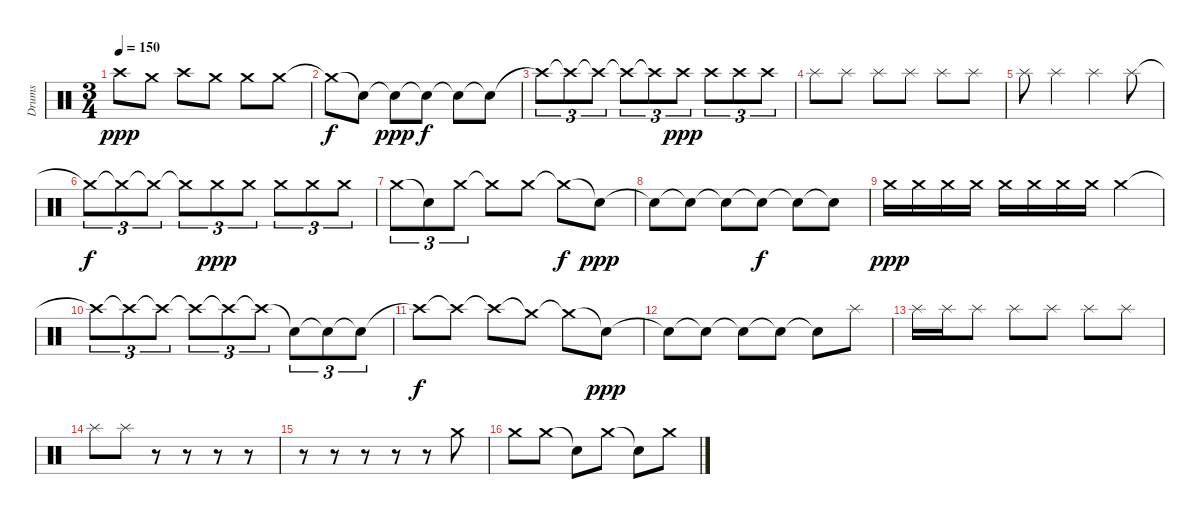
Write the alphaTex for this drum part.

\track ("Drums" "Drums") {instrument percussion}
\staff {score}
\articulation defaults
\ts (3 4)
\tempo 150
\clef neutral
\ks c "Crash high (hit)".8{dy ppp} "Crash medium (hit)".8 "Crash high (hit)".8 "Crash medium (hit)".8 "Crash medium (hit)".8 "Crash medium (hit)".8
|
"Crash medium (hit)"{t}.8{dy f} "Snare (hit)"{t}.8 "Snare (hit)"{t}.8{dy ppp} "Snare (hit)"{t}.8{dy f} "Snare (hit)"{t}.8 "Snare (hit)"{t}.8 |
"Crash high (hit)"{t}.8{tu (3 2)} "Crash high (hit)"{t}.8{tu (3 2)} "Crash high (hit)"{t}.8{tu (3 2)} "Crash high (hit)"{t}.8{tu (3 2)} "Crash high (hit)"{t}.8{tu (3 2)} "Crash high (hit)".8{tu (3 2) dy ppp} "Crash high (hit)".8{tu (3 2)} "Crash high (hit)".8{tu (3 2)} "Crash high (hit)".8{tu (3 2)} |
"Splash (hit)".8 "Splash (hit)".8 "Splash (hit)".8 "Splash (hit)".8 "Splash (hit)".8 "Splash (hit)".8 |
"Splash (hit)".8 "Splash (hit)".4 "Splash (hit)".4 "Splash (hit)".8 |
"Crash medium (hit)"{t}.8{tu (3 2) dy f} "Crash medium (hit)"{t}.8{tu (3 2)} "Crash medium (hit)"{t}.8{tu (3 2)} "Crash medium (hit)"{t}.8{tu (3 2)} "Crash medium (hit)".8{tu (3 2) dy ppp} "Crash medium (hit)".8{tu (3 2)} "Crash medium (hit)".8{tu (3 2)} "Crash medium (hit)".8{tu (3 2)} "Crash medium (hit)".8{tu (3 2)} |
"Crash medium (hit)".8{tu (3 2)} "Snare (hit)"{t}.8{tu (3 2)} "Crash medium (hit)".8{tu (3 2)} "Crash medium (hit)"{t}.8 "Crash medium (hit)".8 "Crash medium (hit)"{t}.8{dy f} "Snare (hit)"{t}.8{dy ppp} |
"Snare (hit)"{t}.8 "Snare (hit)"{t}.8 "Snare (hit)"{t}.8 "Snare (hit)"{t}.8{dy f} "Snare (hit)"{t}.8 "Snare (hit)"{t}.8 |
"Crash medium (hit)".16{dy ppp} "Crash medium (hit)".16 "Crash medium (hit)".16 "Crash medium (hit)".16 "Crash medium (hit)".16 "Crash medium (hit)".16 "Crash medium (hit)".16 "Crash medium (hit)".16 "Crash medium (hit)".4 |
"Crash high (hit)"{t}.8{tu (3 2)} "Crash high (hit)"{t}.8{tu (3 2)} "Crash high (hit)"{t}.8{tu (3 2)} "Crash high (hit)"{t}.8{tu (3 2)} "Crash high (hit)"{t}.8{tu (3 2)} "Crash high (hit)"{t}.8{tu (3 2)} "Snare (hit)"{t}.8{tu (3 2)} "Snare (hit)"{t}.8{tu (3 2)} "Snare (hit)"{t}.8{tu (3 2)} |
"Crash high (hit)"{t}.8{dy f} "Crash high (hit)"{t}.8 "Crash high (hit)"{t}.8 "Crash medium (hit)"{t}.8 "Crash medium (hit)"{t}.8 "Snare (hit)"{t}.8{dy ppp} |
"Snare (hit)"{t}.8 "Snare (hit)"{t}.8 "Snare (hit)"{t}.8 "Snare (hit)"{t}.8 "Snare (hit)"{t}.8 "Splash (hit)".8 |
"Splash (hit)".16 "Splash (hit)".16 "Splash (hit)".8 "Splash (hit)".8 "Splash (hit)".8 "Splash (hit)".8 "Splash (hit)".8 |
"Splash (hit)".8 "Splash (hit)".8 r.8 r.8 r.8 r.8 |
r.8 r.8 r.8 r.8 r.8 "Crash medium (hit)".8 |
"Crash medium (hit)".8 "Crash medium (hit)".8 "Snare (hit)"{t}.8 "Crash medium (hit)".8 "Snare (hit)"{t}.8 "Crash medium (hit)".8
